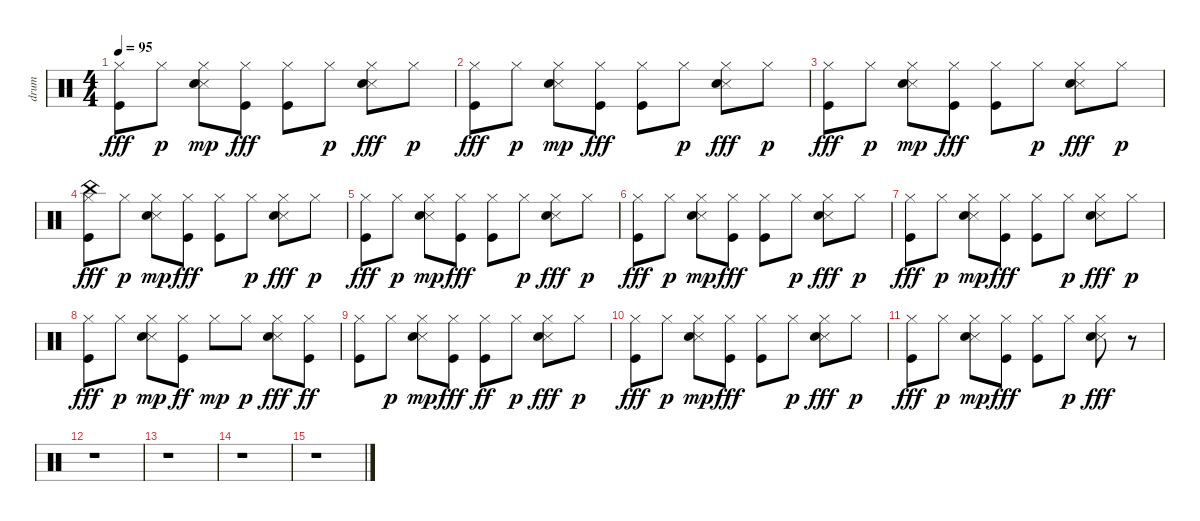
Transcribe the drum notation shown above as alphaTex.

\track ("drum" "drum") {instrument percussion}
\staff {score}
\articulation defaults
\ts (4 4)
\tempo 95
\clef neutral
\ks c
("Hi-Hat (closed)" "Kick (hit)").8{dy fff} "Hi-Hat (closed)".8{dy p} ("Hi-Hat (closed)" "Snare (side stick) 3" "Snare (hit) 2").8{dy mp} ("Hi-Hat (closed)" "Kick (hit)").8{dy fff} ("Hi-Hat (closed)" "Kick (hit)").8 "Hi-Hat (closed)".8{dy p} ("Hi-Hat (closed)" "Snare (side stick) 3" "Snare (hit) 2").8{dy fff} "Hi-Hat (closed)".8{dy p} |
("Hi-Hat (closed)" "Kick (hit)").8{dy fff} "Hi-Hat (closed)".8{dy p} ("Hi-Hat (closed)" "Snare (side stick) 3" "Snare (hit) 2").8{dy mp} ("Hi-Hat (closed)" "Kick (hit)").8{dy fff} ("Hi-Hat (closed)" "Kick (hit)").8 "Hi-Hat (closed)".8{dy p} ("Hi-Hat (closed)" "Snare (side stick) 3" "Snare (hit) 2").8{dy fff} "Hi-Hat (closed)".8{dy p} |
("Hi-Hat (closed)" "Kick (hit)").8{dy fff} "Hi-Hat (closed)".8{dy p} ("Hi-Hat (closed)" "Snare (side stick) 3" "Snare (hit) 2").8{dy mp} ("Hi-Hat (closed)" "Kick (hit)").8{dy fff} ("Hi-Hat (closed)" "Kick (hit)").8 "Hi-Hat (closed)".8{dy p} ("Hi-Hat (closed)" "Snare (side stick) 3" "Snare (hit) 2").8{dy fff} "Hi-Hat (closed)".8{dy p} |
("China (hit)" "Hi-Hat (closed)" "Kick (hit)").8{dy fff} "Hi-Hat (closed)".8{dy p} ("Hi-Hat (closed)" "Snare (side stick) 3" "Snare (hit) 2").8{dy mp} ("Hi-Hat (closed)" "Kick (hit)").8{dy fff} ("Hi-Hat (closed)" "Kick (hit)").8 "Hi-Hat (closed)".8{dy p} ("Hi-Hat (closed)" "Snare (side stick) 3" "Snare (hit) 2").8{dy fff} "Hi-Hat (closed)".8{dy p} |
("Hi-Hat (closed)" "Kick (hit)").8{dy fff} "Hi-Hat (closed)".8{dy p} ("Hi-Hat (closed)" "Snare (side stick) 3" "Snare (hit) 2").8{dy mp} ("Hi-Hat (closed)" "Kick (hit)").8{dy fff} ("Hi-Hat (closed)" "Kick (hit)").8 "Hi-Hat (closed)".8{dy p} ("Hi-Hat (closed)" "Snare (side stick) 3" "Snare (hit) 2").8{dy fff} "Hi-Hat (closed)".8{dy p} |
("Hi-Hat (closed)" "Kick (hit)").8{dy fff} "Hi-Hat (closed)".8{dy p} ("Hi-Hat (closed)" "Snare (side stick) 3" "Snare (hit) 2").8{dy mp} ("Hi-Hat (closed)" "Kick (hit)").8{dy fff} ("Hi-Hat (closed)" "Kick (hit)").8 "Hi-Hat (closed)".8{dy p} ("Hi-Hat (closed)" "Snare (side stick) 3" "Snare (hit) 2").8{dy fff} "Hi-Hat (closed)".8{dy p} |
("Hi-Hat (closed)" "Kick (hit)").8{dy fff} "Hi-Hat (closed)".8{dy p} ("Hi-Hat (closed)" "Snare (side stick) 3" "Snare (hit) 2").8{dy mp} ("Hi-Hat (closed)" "Kick (hit)").8{dy fff} ("Hi-Hat (closed)" "Kick (hit)").8 "Hi-Hat (closed)".8{dy p} ("Hi-Hat (closed)" "Snare (side stick) 3" "Snare (hit) 2").8{dy fff} "Hi-Hat (closed)".8{dy p} |
("Hi-Hat (closed)" "Kick (hit)").8{dy fff} "Hi-Hat (closed)".8{dy p} ("Hi-Hat (closed)" "Snare (side stick) 3" "Snare (hit) 2").8{dy mp} ("Hi-Hat (closed)" "Kick (hit)").8{dy ff} "Hi-Hat (closed)".8{dy mp} "Hi-Hat (closed)".8{dy p} ("Hi-Hat (closed)" "Snare (side stick) 3" "Snare (hit) 2").8{dy fff} ("Hi-Hat (closed)" "Kick (hit)").8{dy ff} |
("Hi-Hat (closed)" "Kick (hit)").8 "Hi-Hat (closed)".8{dy p} ("Hi-Hat (closed)" "Snare (side stick) 3" "Snare (hit) 2").8{dy mp} ("Hi-Hat (closed)" "Kick (hit)").8{dy fff} ("Hi-Hat (closed)" "Kick (hit)").8{dy ff} "Hi-Hat (closed)".8{dy p} ("Hi-Hat (closed)" "Snare (side stick) 3" "Snare (hit) 2").8{dy fff} "Hi-Hat (closed)".8{dy p} |
("Hi-Hat (closed)" "Kick (hit)").8{dy fff} "Hi-Hat (closed)".8{dy p} ("Hi-Hat (closed)" "Snare (side stick) 3" "Snare (hit) 2").8{dy mp} ("Hi-Hat (closed)" "Kick (hit)").8{dy fff} ("Hi-Hat (closed)" "Kick (hit)").8 "Hi-Hat (closed)".8{dy p} ("Hi-Hat (closed)" "Snare (side stick) 3" "Snare (hit) 2").8{dy fff} "Hi-Hat (closed)".8{dy p} |
("Hi-Hat (closed)" "Kick (hit)").8{dy fff} "Hi-Hat (closed)".8{dy p} ("Hi-Hat (closed)" "Snare (side stick) 3" "Snare (hit) 2").8{dy mp} ("Hi-Hat (closed)" "Kick (hit)").8{dy fff} ("Hi-Hat (closed)" "Kick (hit)").8 "Hi-Hat (closed)".8{dy p} ("Hi-Hat (closed)" "Snare (side stick) 3" "Snare (hit) 2").8{dy fff} r.8 |
r.1 |
r.1 |
r.1 |
r.1
